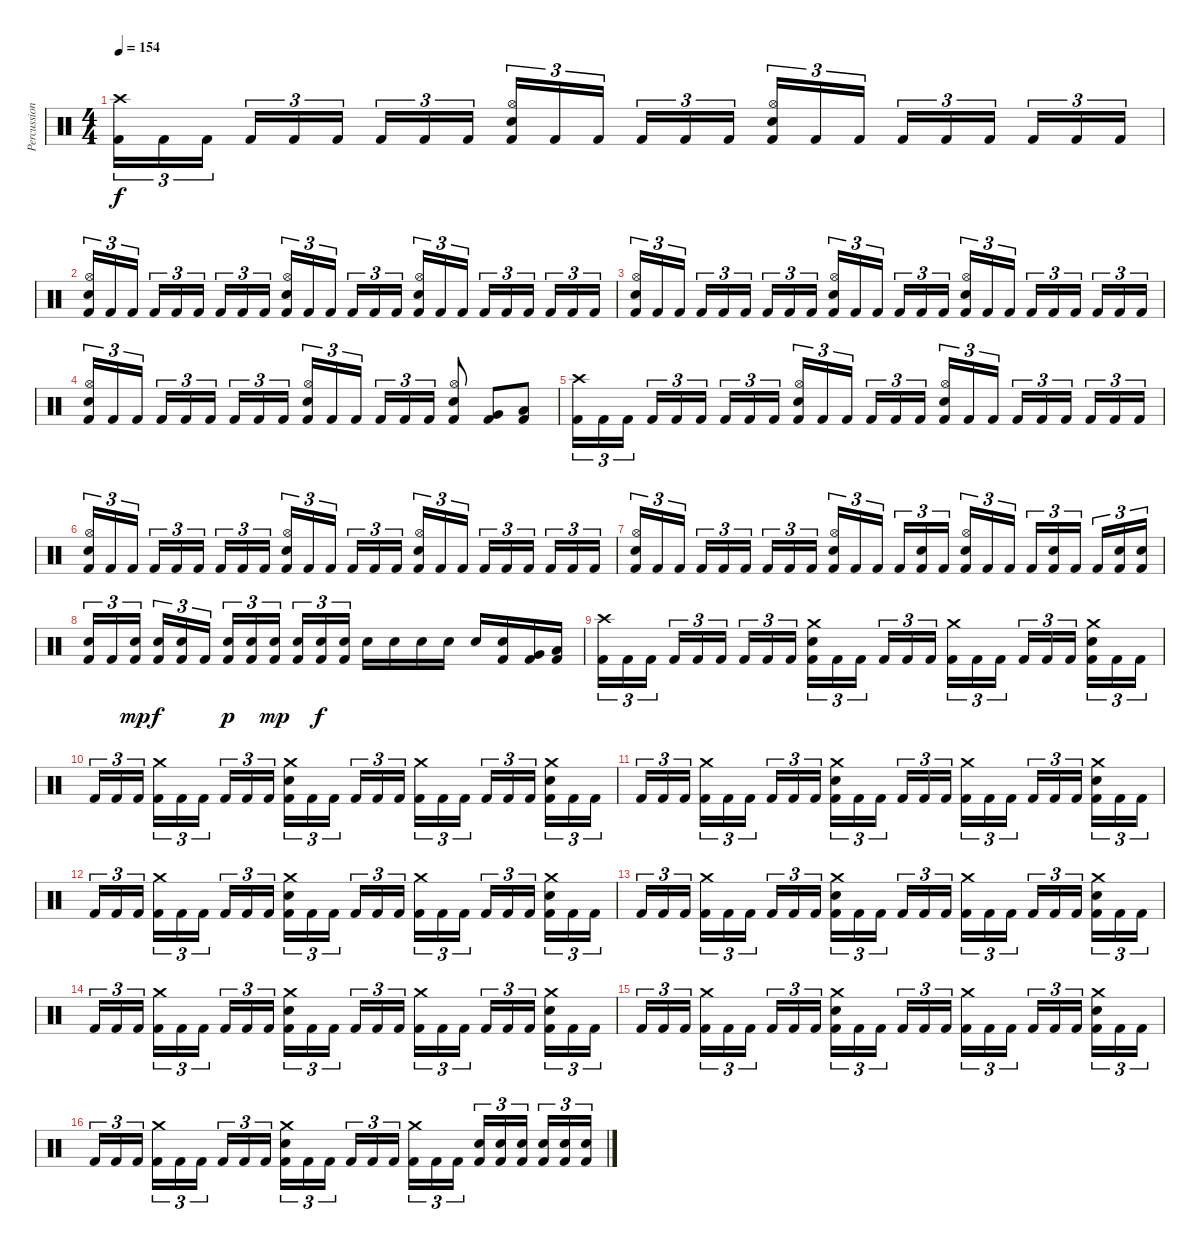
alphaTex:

\track ("Percussion" "Percussion") {instrument percussion}
\staff {score}
\articulation defaults
\ts (4 4)
\tempo 154
\clef neutral
\ks c
("Crash high (hit)" "Kick (hit) 2").16{tu (3 2) dy f} "Kick (hit) 2".16{tu (3 2)} "Kick (hit) 2".16{tu (3 2) beam splitsecondary} "Kick (hit) 2".16{tu (3 2)} "Kick (hit) 2".16{tu (3 2)} "Kick (hit) 2".16{tu (3 2)} "Kick (hit) 2".16{tu (3 2)} "Kick (hit) 2".16{tu (3 2)} "Kick (hit) 2".16{tu (3 2) beam splitsecondary} ("Hi-Hat (open)" "Electric Snare (hit)" "Kick (hit) 2").16{tu (3 2)} "Kick (hit) 2".16{tu (3 2)} "Kick (hit) 2".16{tu (3 2)} "Kick (hit) 2".16{tu (3 2)} "Kick (hit) 2".16{tu (3 2)} "Kick (hit) 2".16{tu (3 2) beam splitsecondary} ("Hi-Hat (open)" "Electric Snare (hit)" "Kick (hit) 2").16{tu (3 2)} "Kick (hit) 2".16{tu (3 2)} "Kick (hit) 2".16{tu (3 2)} "Kick (hit) 2".16{tu (3 2)} "Kick (hit) 2".16{tu (3 2)} "Kick (hit) 2".16{tu (3 2) beam splitsecondary} "Kick (hit) 2".16{tu (3 2)} "Kick (hit) 2".16{tu (3 2)} "Kick (hit) 2".16{tu (3 2)} |
("Hi-Hat (open)" "Electric Snare (hit)" "Kick (hit) 2").16{tu (3 2)} "Kick (hit) 2".16{tu (3 2)} "Kick (hit) 2".16{tu (3 2) beam splitsecondary} "Kick (hit) 2".16{tu (3 2)} "Kick (hit) 2".16{tu (3 2)} "Kick (hit) 2".16{tu (3 2)} "Kick (hit) 2".16{tu (3 2)} "Kick (hit) 2".16{tu (3 2)} "Kick (hit) 2".16{tu (3 2) beam splitsecondary} ("Hi-Hat (open)" "Electric Snare (hit)" "Kick (hit) 2").16{tu (3 2)} "Kick (hit) 2".16{tu (3 2)} "Kick (hit) 2".16{tu (3 2)} "Kick (hit) 2".16{tu (3 2)} "Kick (hit) 2".16{tu (3 2)} "Kick (hit) 2".16{tu (3 2) beam splitsecondary} ("Hi-Hat (open)" "Electric Snare (hit)" "Kick (hit) 2").16{tu (3 2)} "Kick (hit) 2".16{tu (3 2)} "Kick (hit) 2".16{tu (3 2)} "Kick (hit) 2".16{tu (3 2)} "Kick (hit) 2".16{tu (3 2)} "Kick (hit) 2".16{tu (3 2) beam splitsecondary} "Kick (hit) 2".16{tu (3 2)} "Kick (hit) 2".16{tu (3 2)} "Kick (hit) 2".16{tu (3 2)} |
("Hi-Hat (open)" "Electric Snare (hit)" "Kick (hit) 2").16{tu (3 2)} "Kick (hit) 2".16{tu (3 2)} "Kick (hit) 2".16{tu (3 2) beam splitsecondary} "Kick (hit) 2".16{tu (3 2)} "Kick (hit) 2".16{tu (3 2)} "Kick (hit) 2".16{tu (3 2)} "Kick (hit) 2".16{tu (3 2)} "Kick (hit) 2".16{tu (3 2)} "Kick (hit) 2".16{tu (3 2) beam splitsecondary} ("Hi-Hat (open)" "Electric Snare (hit)" "Kick (hit) 2").16{tu (3 2)} "Kick (hit) 2".16{tu (3 2)} "Kick (hit) 2".16{tu (3 2)} "Kick (hit) 2".16{tu (3 2)} "Kick (hit) 2".16{tu (3 2)} "Kick (hit) 2".16{tu (3 2) beam splitsecondary} ("Hi-Hat (open)" "Electric Snare (hit)" "Kick (hit) 2").16{tu (3 2)} "Kick (hit) 2".16{tu (3 2)} "Kick (hit) 2".16{tu (3 2)} "Kick (hit) 2".16{tu (3 2)} "Kick (hit) 2".16{tu (3 2)} "Kick (hit) 2".16{tu (3 2) beam splitsecondary} "Kick (hit) 2".16{tu (3 2)} "Kick (hit) 2".16{tu (3 2)} "Kick (hit) 2".16{tu (3 2)} |
("Hi-Hat (open)" "Electric Snare (hit)" "Kick (hit) 2").16{tu (3 2)} "Kick (hit) 2".16{tu (3 2)} "Kick (hit) 2".16{tu (3 2) beam splitsecondary} "Kick (hit) 2".16{tu (3 2)} "Kick (hit) 2".16{tu (3 2)} "Kick (hit) 2".16{tu (3 2)} "Kick (hit) 2".16{tu (3 2)} "Kick (hit) 2".16{tu (3 2)} "Kick (hit) 2".16{tu (3 2) beam splitsecondary} ("Hi-Hat (open)" "Electric Snare (hit)" "Kick (hit) 2").16{tu (3 2)} "Kick (hit) 2".16{tu (3 2)} "Kick (hit) 2".16{tu (3 2)} "Kick (hit) 2".16{tu (3 2)} "Kick (hit) 2".16{tu (3 2)} "Kick (hit) 2".16{tu (3 2)} ("Hi-Hat (open)" "Electric Snare (hit)" "Kick (hit) 2").8 ("Very Low Tom (hit)" "Kick (hit) 2").8 ("Low Floor Tom (hit)" "Kick (hit) 2").8 |
("Crash high (hit)" "Kick (hit) 2").16{tu (3 2)} "Kick (hit) 2".16{tu (3 2)} "Kick (hit) 2".16{tu (3 2) beam splitsecondary} "Kick (hit) 2".16{tu (3 2)} "Kick (hit) 2".16{tu (3 2)} "Kick (hit) 2".16{tu (3 2)} "Kick (hit) 2".16{tu (3 2)} "Kick (hit) 2".16{tu (3 2)} "Kick (hit) 2".16{tu (3 2) beam splitsecondary} ("Hi-Hat (open)" "Electric Snare (hit)" "Kick (hit) 2").16{tu (3 2)} "Kick (hit) 2".16{tu (3 2)} "Kick (hit) 2".16{tu (3 2)} "Kick (hit) 2".16{tu (3 2)} "Kick (hit) 2".16{tu (3 2)} "Kick (hit) 2".16{tu (3 2) beam splitsecondary} ("Hi-Hat (open)" "Electric Snare (hit)" "Kick (hit) 2").16{tu (3 2)} "Kick (hit) 2".16{tu (3 2)} "Kick (hit) 2".16{tu (3 2)} "Kick (hit) 2".16{tu (3 2)} "Kick (hit) 2".16{tu (3 2)} "Kick (hit) 2".16{tu (3 2) beam splitsecondary} "Kick (hit) 2".16{tu (3 2)} "Kick (hit) 2".16{tu (3 2)} "Kick (hit) 2".16{tu (3 2)} |
("Hi-Hat (open)" "Electric Snare (hit)" "Kick (hit) 2").16{tu (3 2)} "Kick (hit) 2".16{tu (3 2)} "Kick (hit) 2".16{tu (3 2) beam splitsecondary} "Kick (hit) 2".16{tu (3 2)} "Kick (hit) 2".16{tu (3 2)} "Kick (hit) 2".16{tu (3 2)} "Kick (hit) 2".16{tu (3 2)} "Kick (hit) 2".16{tu (3 2)} "Kick (hit) 2".16{tu (3 2) beam splitsecondary} ("Hi-Hat (open)" "Electric Snare (hit)" "Kick (hit) 2").16{tu (3 2)} "Kick (hit) 2".16{tu (3 2)} "Kick (hit) 2".16{tu (3 2)} "Kick (hit) 2".16{tu (3 2)} "Kick (hit) 2".16{tu (3 2)} "Kick (hit) 2".16{tu (3 2) beam splitsecondary} ("Hi-Hat (open)" "Electric Snare (hit)" "Kick (hit) 2").16{tu (3 2)} "Kick (hit) 2".16{tu (3 2)} "Kick (hit) 2".16{tu (3 2)} "Kick (hit) 2".16{tu (3 2)} "Kick (hit) 2".16{tu (3 2)} "Kick (hit) 2".16{tu (3 2) beam splitsecondary} "Kick (hit) 2".16{tu (3 2)} "Kick (hit) 2".16{tu (3 2)} "Kick (hit) 2".16{tu (3 2)} |
("Hi-Hat (open)" "Electric Snare (hit)" "Kick (hit) 2").16{tu (3 2)} "Kick (hit) 2".16{tu (3 2)} "Kick (hit) 2".16{tu (3 2) beam splitsecondary} "Kick (hit) 2".16{tu (3 2)} "Kick (hit) 2".16{tu (3 2)} "Kick (hit) 2".16{tu (3 2)} "Kick (hit) 2".16{tu (3 2)} "Kick (hit) 2".16{tu (3 2)} "Kick (hit) 2".16{tu (3 2) beam splitsecondary} ("Hi-Hat (open)" "Electric Snare (hit)" "Kick (hit) 2").16{tu (3 2)} "Kick (hit) 2".16{tu (3 2)} "Kick (hit) 2".16{tu (3 2)} "Kick (hit) 2".16{tu (3 2)} ("Electric Snare (hit)" "Kick (hit) 2").16{tu (3 2)} "Kick (hit) 2".16{tu (3 2) beam splitsecondary} ("Hi-Hat (open)" "Electric Snare (hit)" "Kick (hit) 2").16{tu (3 2)} "Kick (hit) 2".16{tu (3 2)} "Kick (hit) 2".16{tu (3 2)} "Kick (hit) 2".16{tu (3 2)} ("Electric Snare (hit)" "Kick (hit) 2").16{tu (3 2)} "Kick (hit) 2".16{tu (3 2) beam splitsecondary} "Kick (hit) 2".16{tu (3 2)} ("Electric Snare (hit)" "Kick (hit) 2").16{tu (3 2)} ("Electric Snare (hit)" "Kick (hit) 2").16{tu (3 2)} |
("Electric Snare (hit)" "Kick (hit) 2").16{tu (3 2)} "Kick (hit) 2".16{tu (3 2)} ("Electric Snare (hit)" "Kick (hit) 2").16{tu (3 2) dy mp beam splitsecondary} ("Electric Snare (hit)" "Kick (hit) 2").16{tu (3 2) dy f} ("Electric Snare (hit)" "Kick (hit) 2").16{tu (3 2)} "Kick (hit) 2".16{tu (3 2)} ("Electric Snare (hit)" "Kick (hit) 2").16{tu (3 2) dy p} ("Electric Snare (hit)" "Kick (hit) 2").16{tu (3 2)} ("Electric Snare (hit)" "Kick (hit) 2").16{tu (3 2) dy mp beam splitsecondary} ("Electric Snare (hit)" "Kick (hit) 2").16{tu (3 2)} ("Electric Snare (hit)" "Kick (hit) 2").16{tu (3 2) dy f} ("Electric Snare (hit)" "Kick (hit) 2").16{tu (3 2)} "Electric Snare (hit)".16 "Electric Snare (hit)".16 "Electric Snare (hit)".16 "Electric Snare (hit)".16 "Electric Snare (hit)".16 ("Electric Snare (hit)" "Kick (hit) 2").16 ("Very Low Tom (hit)" "Kick (hit) 2").16 ("Low Floor Tom (hit)" "Kick (hit) 2").16 |
("Crash high (hit)" "Kick (hit) 2").16{tu (3 2)} "Kick (hit) 2".16{tu (3 2)} "Kick (hit) 2".16{tu (3 2) beam splitsecondary} "Kick (hit) 2".16{tu (3 2)} "Kick (hit) 2".16{tu (3 2)} "Kick (hit) 2".16{tu (3 2)} "Kick (hit) 2".16{tu (3 2)} "Kick (hit) 2".16{tu (3 2)} "Kick (hit) 2".16{tu (3 2) beam splitsecondary} ("Crash medium (hit)" "Electric Snare (hit)" "Kick (hit) 2").16{tu (3 2)} "Kick (hit) 2".16{tu (3 2)} "Kick (hit) 2".16{tu (3 2)} "Kick (hit) 2".16{tu (3 2)} "Kick (hit) 2".16{tu (3 2)} "Kick (hit) 2".16{tu (3 2) beam splitsecondary} ("Crash medium (hit)" "Kick (hit) 2").16{tu (3 2)} "Kick (hit) 2".16{tu (3 2)} "Kick (hit) 2".16{tu (3 2)} "Kick (hit) 2".16{tu (3 2)} "Kick (hit) 2".16{tu (3 2)} "Kick (hit) 2".16{tu (3 2) beam splitsecondary} ("Crash medium (hit)" "Electric Snare (hit)" "Kick (hit) 2").16{tu (3 2)} "Kick (hit) 2".16{tu (3 2)} "Kick (hit) 2".16{tu (3 2)} |
"Kick (hit) 2".16{tu (3 2)} "Kick (hit) 2".16{tu (3 2)} "Kick (hit) 2".16{tu (3 2) beam splitsecondary} ("Crash medium (hit)" "Kick (hit) 2").16{tu (3 2)} "Kick (hit) 2".16{tu (3 2)} "Kick (hit) 2".16{tu (3 2)} "Kick (hit) 2".16{tu (3 2)} "Kick (hit) 2".16{tu (3 2)} "Kick (hit) 2".16{tu (3 2) beam splitsecondary} ("Crash medium (hit)" "Electric Snare (hit)" "Kick (hit) 2").16{tu (3 2)} "Kick (hit) 2".16{tu (3 2)} "Kick (hit) 2".16{tu (3 2)} "Kick (hit) 2".16{tu (3 2)} "Kick (hit) 2".16{tu (3 2)} "Kick (hit) 2".16{tu (3 2) beam splitsecondary} ("Crash medium (hit)" "Kick (hit) 2").16{tu (3 2)} "Kick (hit) 2".16{tu (3 2)} "Kick (hit) 2".16{tu (3 2)} "Kick (hit) 2".16{tu (3 2)} "Kick (hit) 2".16{tu (3 2)} "Kick (hit) 2".16{tu (3 2) beam splitsecondary} ("Crash medium (hit)" "Electric Snare (hit)" "Kick (hit) 2").16{tu (3 2)} "Kick (hit) 2".16{tu (3 2)} "Kick (hit) 2".16{tu (3 2)} |
"Kick (hit) 2".16{tu (3 2)} "Kick (hit) 2".16{tu (3 2)} "Kick (hit) 2".16{tu (3 2) beam splitsecondary} ("Crash medium (hit)" "Kick (hit) 2").16{tu (3 2)} "Kick (hit) 2".16{tu (3 2)} "Kick (hit) 2".16{tu (3 2)} "Kick (hit) 2".16{tu (3 2)} "Kick (hit) 2".16{tu (3 2)} "Kick (hit) 2".16{tu (3 2) beam splitsecondary} ("Crash medium (hit)" "Electric Snare (hit)" "Kick (hit) 2").16{tu (3 2)} "Kick (hit) 2".16{tu (3 2)} "Kick (hit) 2".16{tu (3 2)} "Kick (hit) 2".16{tu (3 2)} "Kick (hit) 2".16{tu (3 2)} "Kick (hit) 2".16{tu (3 2) beam splitsecondary} ("Crash medium (hit)" "Kick (hit) 2").16{tu (3 2)} "Kick (hit) 2".16{tu (3 2)} "Kick (hit) 2".16{tu (3 2)} "Kick (hit) 2".16{tu (3 2)} "Kick (hit) 2".16{tu (3 2)} "Kick (hit) 2".16{tu (3 2) beam splitsecondary} ("Crash medium (hit)" "Electric Snare (hit)" "Kick (hit) 2").16{tu (3 2)} "Kick (hit) 2".16{tu (3 2)} "Kick (hit) 2".16{tu (3 2)} |
"Kick (hit) 2".16{tu (3 2)} "Kick (hit) 2".16{tu (3 2)} "Kick (hit) 2".16{tu (3 2) beam splitsecondary} ("Crash medium (hit)" "Kick (hit) 2").16{tu (3 2)} "Kick (hit) 2".16{tu (3 2)} "Kick (hit) 2".16{tu (3 2)} "Kick (hit) 2".16{tu (3 2)} "Kick (hit) 2".16{tu (3 2)} "Kick (hit) 2".16{tu (3 2) beam splitsecondary} ("Crash medium (hit)" "Electric Snare (hit)" "Kick (hit) 2").16{tu (3 2)} "Kick (hit) 2".16{tu (3 2)} "Kick (hit) 2".16{tu (3 2)} "Kick (hit) 2".16{tu (3 2)} "Kick (hit) 2".16{tu (3 2)} "Kick (hit) 2".16{tu (3 2) beam splitsecondary} ("Crash medium (hit)" "Kick (hit) 2").16{tu (3 2)} "Kick (hit) 2".16{tu (3 2)} "Kick (hit) 2".16{tu (3 2)} "Kick (hit) 2".16{tu (3 2)} "Kick (hit) 2".16{tu (3 2)} "Kick (hit) 2".16{tu (3 2) beam splitsecondary} ("Crash medium (hit)" "Electric Snare (hit)" "Kick (hit) 2").16{tu (3 2)} "Kick (hit) 2".16{tu (3 2)} "Kick (hit) 2".16{tu (3 2)} |
"Kick (hit) 2".16{tu (3 2)} "Kick (hit) 2".16{tu (3 2)} "Kick (hit) 2".16{tu (3 2) beam splitsecondary} ("Crash medium (hit)" "Kick (hit) 2").16{tu (3 2)} "Kick (hit) 2".16{tu (3 2)} "Kick (hit) 2".16{tu (3 2)} "Kick (hit) 2".16{tu (3 2)} "Kick (hit) 2".16{tu (3 2)} "Kick (hit) 2".16{tu (3 2) beam splitsecondary} ("Crash medium (hit)" "Electric Snare (hit)" "Kick (hit) 2").16{tu (3 2)} "Kick (hit) 2".16{tu (3 2)} "Kick (hit) 2".16{tu (3 2)} "Kick (hit) 2".16{tu (3 2)} "Kick (hit) 2".16{tu (3 2)} "Kick (hit) 2".16{tu (3 2) beam splitsecondary} ("Crash medium (hit)" "Kick (hit) 2").16{tu (3 2)} "Kick (hit) 2".16{tu (3 2)} "Kick (hit) 2".16{tu (3 2)} "Kick (hit) 2".16{tu (3 2)} "Kick (hit) 2".16{tu (3 2)} "Kick (hit) 2".16{tu (3 2) beam splitsecondary} ("Crash medium (hit)" "Electric Snare (hit)" "Kick (hit) 2").16{tu (3 2)} "Kick (hit) 2".16{tu (3 2)} "Kick (hit) 2".16{tu (3 2)} |
"Kick (hit) 2".16{tu (3 2)} "Kick (hit) 2".16{tu (3 2)} "Kick (hit) 2".16{tu (3 2) beam splitsecondary} ("Crash medium (hit)" "Kick (hit) 2").16{tu (3 2)} "Kick (hit) 2".16{tu (3 2)} "Kick (hit) 2".16{tu (3 2)} "Kick (hit) 2".16{tu (3 2)} "Kick (hit) 2".16{tu (3 2)} "Kick (hit) 2".16{tu (3 2) beam splitsecondary} ("Crash medium (hit)" "Electric Snare (hit)" "Kick (hit) 2").16{tu (3 2)} "Kick (hit) 2".16{tu (3 2)} "Kick (hit) 2".16{tu (3 2)} "Kick (hit) 2".16{tu (3 2)} "Kick (hit) 2".16{tu (3 2)} "Kick (hit) 2".16{tu (3 2) beam splitsecondary} ("Crash medium (hit)" "Kick (hit) 2").16{tu (3 2)} "Kick (hit) 2".16{tu (3 2)} "Kick (hit) 2".16{tu (3 2)} "Kick (hit) 2".16{tu (3 2)} "Kick (hit) 2".16{tu (3 2)} "Kick (hit) 2".16{tu (3 2) beam splitsecondary} ("Crash medium (hit)" "Electric Snare (hit)" "Kick (hit) 2").16{tu (3 2)} "Kick (hit) 2".16{tu (3 2)} "Kick (hit) 2".16{tu (3 2)} |
"Kick (hit) 2".16{tu (3 2)} "Kick (hit) 2".16{tu (3 2)} "Kick (hit) 2".16{tu (3 2) beam splitsecondary} ("Crash medium (hit)" "Kick (hit) 2").16{tu (3 2)} "Kick (hit) 2".16{tu (3 2)} "Kick (hit) 2".16{tu (3 2)} "Kick (hit) 2".16{tu (3 2)} "Kick (hit) 2".16{tu (3 2)} "Kick (hit) 2".16{tu (3 2) beam splitsecondary} ("Crash medium (hit)" "Electric Snare (hit)" "Kick (hit) 2").16{tu (3 2)} "Kick (hit) 2".16{tu (3 2)} "Kick (hit) 2".16{tu (3 2)} "Kick (hit) 2".16{tu (3 2)} "Kick (hit) 2".16{tu (3 2)} "Kick (hit) 2".16{tu (3 2) beam splitsecondary} ("Crash medium (hit)" "Kick (hit) 2").16{tu (3 2)} "Kick (hit) 2".16{tu (3 2)} "Kick (hit) 2".16{tu (3 2)} "Kick (hit) 2".16{tu (3 2)} "Kick (hit) 2".16{tu (3 2)} "Kick (hit) 2".16{tu (3 2) beam splitsecondary} ("Crash medium (hit)" "Electric Snare (hit)" "Kick (hit) 2").16{tu (3 2)} "Kick (hit) 2".16{tu (3 2)} "Kick (hit) 2".16{tu (3 2)} |
"Kick (hit) 2".16{tu (3 2)} "Kick (hit) 2".16{tu (3 2)} "Kick (hit) 2".16{tu (3 2) beam splitsecondary} ("Crash medium (hit)" "Kick (hit) 2").16{tu (3 2)} "Kick (hit) 2".16{tu (3 2)} "Kick (hit) 2".16{tu (3 2)} "Kick (hit) 2".16{tu (3 2)} "Kick (hit) 2".16{tu (3 2)} "Kick (hit) 2".16{tu (3 2) beam splitsecondary} ("Crash medium (hit)" "Electric Snare (hit)" "Kick (hit) 2").16{tu (3 2)} "Kick (hit) 2".16{tu (3 2)} "Kick (hit) 2".16{tu (3 2)} "Kick (hit) 2".16{tu (3 2)} "Kick (hit) 2".16{tu (3 2)} "Kick (hit) 2".16{tu (3 2) beam splitsecondary} ("Crash medium (hit)" "Kick (hit) 2").16{tu (3 2)} "Kick (hit) 2".16{tu (3 2)} "Kick (hit) 2".16{tu (3 2)} ("Electric Snare (hit)" "Kick (hit) 2").16{tu (3 2)} ("Electric Snare (hit)" "Kick (hit) 2").16{tu (3 2)} ("Electric Snare (hit)" "Kick (hit) 2").16{tu (3 2) beam splitsecondary} ("Electric Snare (hit)" "Kick (hit) 2").16{tu (3 2)} ("Electric Snare (hit)" "Kick (hit) 2").16{tu (3 2)} ("Electric Snare (hit)" "Kick (hit) 2").16{tu (3 2)}
